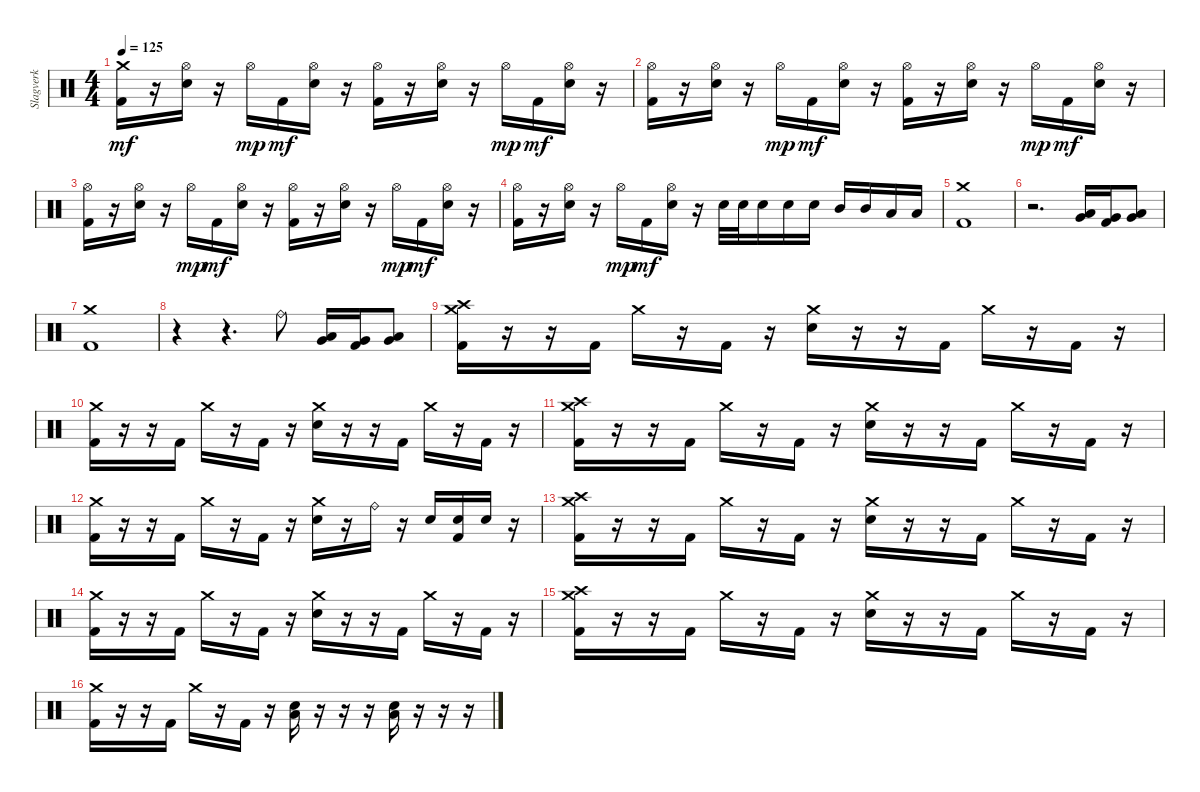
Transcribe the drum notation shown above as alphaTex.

\track ("Slagverk" "Slagverk") {instrument percussion}
\staff {score}
\articulation defaults
\ts (4 4)
\tempo 125
\clef neutral
\ks c
("Crash medium (hit)" "Kick (hit) 2").16{dy mf} r.16 ("Hi-Hat (open)" "Electric Snare (hit)").16 r.16 "Hi-Hat (open)".16{dy mp} "Kick (hit) 2".16{dy mf} ("Hi-Hat (open)" "Electric Snare (hit)").16 r.16 ("Hi-Hat (open)" "Kick (hit) 2").16 r.16 ("Hi-Hat (open)" "Electric Snare (hit)").16 r.16 "Hi-Hat (open)".16{dy mp} "Kick (hit) 2".16{dy mf} ("Hi-Hat (open)" "Electric Snare (hit)").16 r.16 |
("Hi-Hat (open)" "Kick (hit) 2").16 r.16 ("Hi-Hat (open)" "Electric Snare (hit)").16 r.16 "Hi-Hat (open)".16{dy mp} "Kick (hit) 2".16{dy mf} ("Hi-Hat (open)" "Electric Snare (hit)").16 r.16 ("Hi-Hat (open)" "Kick (hit) 2").16 r.16 ("Hi-Hat (open)" "Electric Snare (hit)").16 r.16 "Hi-Hat (open)".16{dy mp} "Kick (hit) 2".16{dy mf} ("Hi-Hat (open)" "Electric Snare (hit)").16 r.16 |
("Hi-Hat (open)" "Kick (hit) 2").16 r.16 ("Hi-Hat (open)" "Electric Snare (hit)").16 r.16 "Hi-Hat (open)".16{dy mp} "Kick (hit) 2".16{dy mf} ("Hi-Hat (open)" "Electric Snare (hit)").16 r.16 ("Hi-Hat (open)" "Kick (hit) 2").16 r.16 ("Hi-Hat (open)" "Electric Snare (hit)").16 r.16 "Hi-Hat (open)".16{dy mp} "Kick (hit) 2".16{dy mf} ("Hi-Hat (open)" "Electric Snare (hit)").16 r.16 |
("Hi-Hat (open)" "Kick (hit) 2").16 r.16 ("Hi-Hat (open)" "Electric Snare (hit)").16 r.16 "Hi-Hat (open)".16{dy mp} "Kick (hit) 2".16{dy mf} ("Hi-Hat (open)" "Electric Snare (hit)").16 r.16 "Electric Snare (hit)".32 "Electric Snare (hit)".32 "Electric Snare (hit)".16 "Electric Snare (hit)".16 "Electric Snare (hit)".16 "Mid Tom (hit)".16 "Mid Tom (hit)".16 "Low Tom (hit)".16 "Low Tom (hit)".16 |
("Crash medium (hit)" "Kick (hit) 2").1 |
r.2{d} ("Low Tom (hit)" "Very Low Tom (hit)").16 ("Very Low Tom (hit)" "Kick (hit) 2").16 ("Low Tom (hit)" "Very Low Tom (hit)").8 |
("Crash medium (hit)" "Kick (hit) 2").1 |
r.4 r.4{d} "Ride (bell)".8 ("Low Tom (hit)" "Very Low Tom (hit)").16 ("Very Low Tom (hit)" "Kick (hit) 2").16 ("Low Tom (hit)" "Very Low Tom (hit)").8 |
("Crash medium (hit)" "Crash high (hit)" "Kick (hit) 2").16 r.16 r.16 "Kick (hit) 2".16 "Crash medium (hit)".16 r.16 "Kick (hit) 2".16 r.16 ("Crash medium (hit)" "Electric Snare (hit)").16 r.16 r.16 "Kick (hit) 2".16 "Crash medium (hit)".16 r.16 "Kick (hit) 2".16 r.16 |
("Crash medium (hit)" "Kick (hit) 2").16 r.16 r.16 "Kick (hit) 2".16 "Crash medium (hit)".16 r.16 "Kick (hit) 2".16 r.16 ("Crash medium (hit)" "Electric Snare (hit)").16 r.16 r.16 "Kick (hit) 2".16 "Crash medium (hit)".16 r.16 "Kick (hit) 2".16 r.16 |
("Crash medium (hit)" "Crash high (hit)" "Kick (hit) 2").16 r.16 r.16 "Kick (hit) 2".16 "Crash medium (hit)".16 r.16 "Kick (hit) 2".16 r.16 ("Crash medium (hit)" "Electric Snare (hit)").16 r.16 r.16 "Kick (hit) 2".16 "Crash medium (hit)".16 r.16 "Kick (hit) 2".16 r.16 |
("Crash medium (hit)" "Kick (hit) 2").16 r.16 r.16 "Kick (hit) 2".16 "Crash medium (hit)".16 r.16 "Kick (hit) 2".16 r.16 ("Crash medium (hit)" "Electric Snare (hit)").16 r.16 "Ride (bell)".16 r.16 "Electric Snare (hit)".16 ("Electric Snare (hit)" "Kick (hit) 2").16 "Electric Snare (hit)".16 r.16 |
("Crash medium (hit)" "Crash high (hit)" "Kick (hit) 2").16 r.16 r.16 "Kick (hit) 2".16 "Crash medium (hit)".16 r.16 "Kick (hit) 2".16 r.16 ("Crash medium (hit)" "Electric Snare (hit)").16 r.16 r.16 "Kick (hit) 2".16 "Crash medium (hit)".16 r.16 "Kick (hit) 2".16 r.16 |
("Crash medium (hit)" "Kick (hit) 2").16 r.16 r.16 "Kick (hit) 2".16 "Crash medium (hit)".16 r.16 "Kick (hit) 2".16 r.16 ("Crash medium (hit)" "Electric Snare (hit)").16 r.16 r.16 "Kick (hit) 2".16 "Crash medium (hit)".16 r.16 "Kick (hit) 2".16 r.16 |
("Crash medium (hit)" "Crash high (hit)" "Kick (hit) 2").16 r.16 r.16 "Kick (hit) 2".16 "Crash medium (hit)".16 r.16 "Kick (hit) 2".16 r.16 ("Crash medium (hit)" "Electric Snare (hit)").16 r.16 r.16 "Kick (hit) 2".16 "Crash medium (hit)".16 r.16 "Kick (hit) 2".16 r.16 |
("Crash medium (hit)" "Kick (hit) 2").16 r.16 r.16 "Kick (hit) 2".16 "Crash medium (hit)".16 r.16 "Kick (hit) 2".16 r.16 ("Low Tom (hit)" "Electric Snare (hit)").16 r.16 r.16 r.16 ("Low Tom (hit)" "Electric Snare (hit)").16 r.16 r.16 r.16
